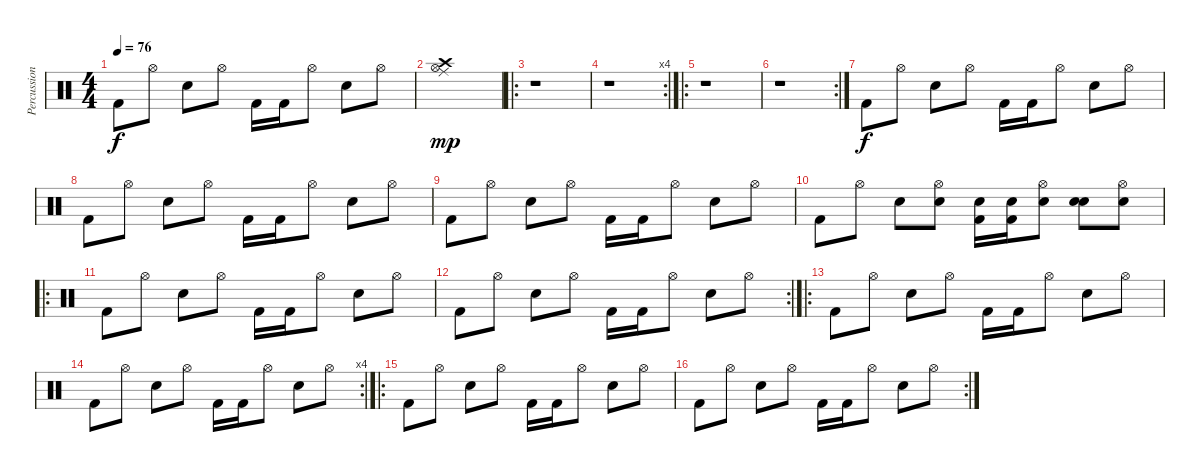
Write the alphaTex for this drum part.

\track ("Percussion" "Percussion") {instrument percussion}
\staff {score}
\articulation defaults
\ts (4 4)
\tempo 76
\clef neutral
\ks c "Kick (hit) 2".8{dy f} "Hi-Hat (open)".8 "Snare (hit) 2".8 "Hi-Hat (open)".8 "Kick (hit) 2".16 "Kick (hit) 2".16 "Hi-Hat (open)".8 "Snare (hit) 2".8 "Hi-Hat (open)".8
|
("Crash high (hit)" "Ride (middle)" "Hi-Hat (open)").1{dy mp} |
\ro
r.1 |
\rc 4
r.1 |
\ro
r.1 |
\rc 2
r.1 |
"Kick (hit) 2".8{dy f} "Hi-Hat (open)".8 "Snare (hit) 2".8 "Hi-Hat (open)".8 "Kick (hit) 2".16 "Kick (hit) 2".16 "Hi-Hat (open)".8 "Snare (hit) 2".8 "Hi-Hat (open)".8 |
"Kick (hit) 2".8 "Hi-Hat (open)".8 "Snare (hit) 2".8 "Hi-Hat (open)".8 "Kick (hit) 2".16 "Kick (hit) 2".16 "Hi-Hat (open)".8 "Snare (hit) 2".8 "Hi-Hat (open)".8 |
"Kick (hit) 2".8 "Hi-Hat (open)".8 "Snare (hit) 2".8 "Hi-Hat (open)".8 "Kick (hit) 2".16 "Kick (hit) 2".16 "Hi-Hat (open)".8 "Snare (hit) 2".8 "Hi-Hat (open)".8 |
"Kick (hit) 2".8 "Hi-Hat (open)".8 "Snare (hit) 2".8 ("Hi-Hat (open)" "Snare (hit) 2").8 ("Kick (hit) 2" "Snare (hit) 2").16 ("Kick (hit) 2" "Snare (hit) 2").16 ("Hi-Hat (open)" "Snare (hit) 2").8 ("Snare (hit) 2" "Snare (hit) 2").8 ("Hi-Hat (open)" "Snare (hit) 2").8 |
\ro "Kick (hit) 2".8 "Hi-Hat (open)".8 "Snare (hit) 2".8 "Hi-Hat (open)".8 "Kick (hit) 2".16 "Kick (hit) 2".16 "Hi-Hat (open)".8 "Snare (hit) 2".8 "Hi-Hat (open)".8
|
\rc 2 "Kick (hit) 2".8 "Hi-Hat (open)".8 "Snare (hit) 2".8 "Hi-Hat (open)".8 "Kick (hit) 2".16 "Kick (hit) 2".16 "Hi-Hat (open)".8 "Snare (hit) 2".8 "Hi-Hat (open)".8
|
\ro "Kick (hit) 2".8 "Hi-Hat (open)".8 "Snare (hit) 2".8 "Hi-Hat (open)".8 "Kick (hit) 2".16 "Kick (hit) 2".16 "Hi-Hat (open)".8 "Snare (hit) 2".8 "Hi-Hat (open)".8
|
\rc 4 "Kick (hit) 2".8 "Hi-Hat (open)".8 "Snare (hit) 2".8 "Hi-Hat (open)".8 "Kick (hit) 2".16 "Kick (hit) 2".16 "Hi-Hat (open)".8 "Snare (hit) 2".8 "Hi-Hat (open)".8
|
\ro "Kick (hit) 2".8 "Hi-Hat (open)".8 "Snare (hit) 2".8 "Hi-Hat (open)".8 "Kick (hit) 2".16 "Kick (hit) 2".16 "Hi-Hat (open)".8 "Snare (hit) 2".8 "Hi-Hat (open)".8
|
\rc 2 "Kick (hit) 2".8 "Hi-Hat (open)".8 "Snare (hit) 2".8 "Hi-Hat (open)".8 "Kick (hit) 2".16 "Kick (hit) 2".16 "Hi-Hat (open)".8 "Snare (hit) 2".8 "Hi-Hat (open)".8
